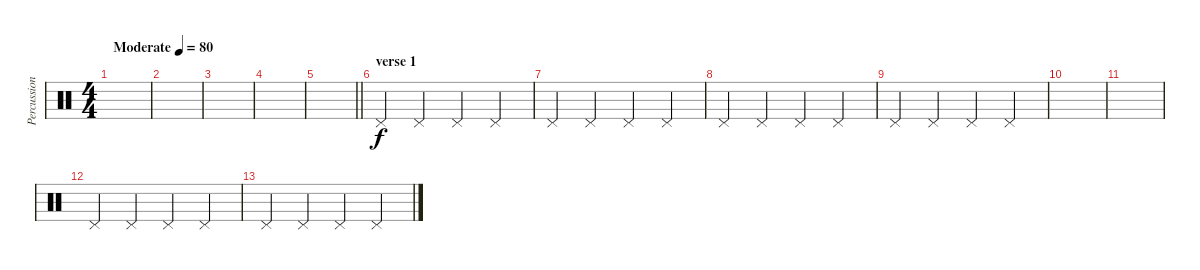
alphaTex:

\track ("Percussion" "Percussion") {instrument percussion}
\staff {score}
\articulation defaults
\ts (4 4)
\tempo (80 "Moderate")
\clef neutral
\ks c
|
|
|
|
\barLineRight lightlight
|
\section ("" "verse 1")
"Pedal Hi-Hat (hit)".4 "Pedal Hi-Hat (hit)".4 "Pedal Hi-Hat (hit)".4 "Pedal Hi-Hat (hit)".4 |
"Pedal Hi-Hat (hit)".4 "Pedal Hi-Hat (hit)".4 "Pedal Hi-Hat (hit)".4 "Pedal Hi-Hat (hit)".4 |
"Pedal Hi-Hat (hit)".4 "Pedal Hi-Hat (hit)".4 "Pedal Hi-Hat (hit)".4 "Pedal Hi-Hat (hit)".4 |
"Pedal Hi-Hat (hit)".4 "Pedal Hi-Hat (hit)".4 "Pedal Hi-Hat (hit)".4 "Pedal Hi-Hat (hit)".4 |
|
|
"Pedal Hi-Hat (hit)".4 "Pedal Hi-Hat (hit)".4 "Pedal Hi-Hat (hit)".4 "Pedal Hi-Hat (hit)".4 |
"Pedal Hi-Hat (hit)".4 "Pedal Hi-Hat (hit)".4 "Pedal Hi-Hat (hit)".4 "Pedal Hi-Hat (hit)".4
